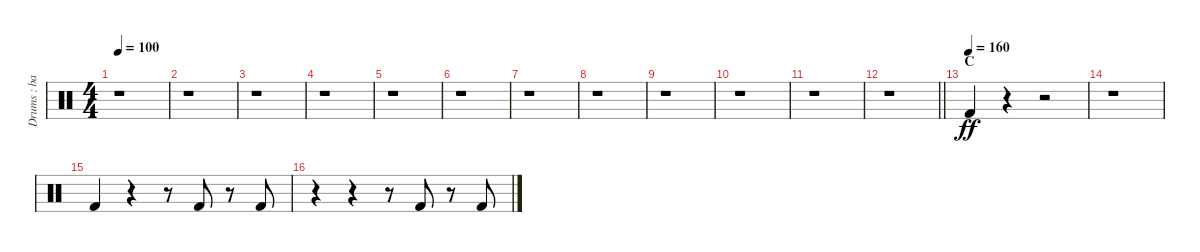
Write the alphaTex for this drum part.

\track ("Drums : bass drums" "Drums : ba") {instrument percussion}
\staff {score}
\articulation defaults
\ts (4 4)
\tempo 100
\clef neutral
\ks c
r.1{dy ff} |
r.1 |
r.1 |
r.1 |
r.1 |
r.1 |
r.1 |
r.1 |
r.1 |
r.1 |
r.1 |
\barLineRight lightlight
r.1 |
\section ("" "C")
\tempo (160)
"Kick (hit) 2".4{volume 13} r.4 r.2 |
r.1 |
"Kick (hit) 2".4{volume 13} r.4 r.8 "Kick (hit) 2".8{volume 13} r.8 "Kick (hit) 2".8{volume 13} |
r.4 r.4 r.8 "Kick (hit) 2".8{volume 13} r.8 "Kick (hit) 2".8{volume 13}
